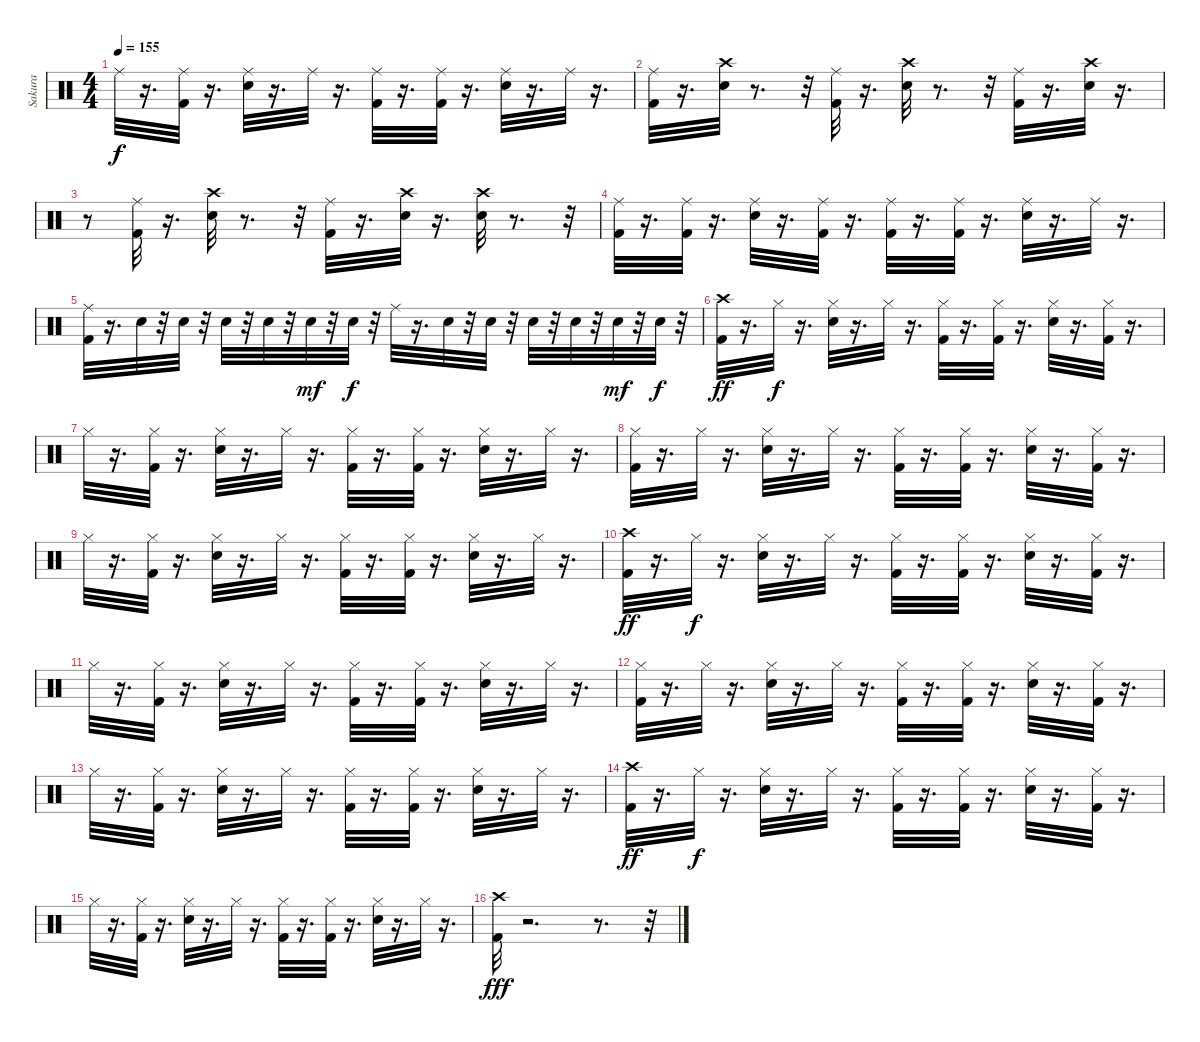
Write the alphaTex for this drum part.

\track ("Sakura" "Sakura") {instrument percussion}
\staff {score}
\articulation defaults
\ts (4 4)
\tempo 155
\clef neutral
\ks c "Ride (middle)".32{dy f}
r.16{d} ("Ride (middle)" "Kick (hit) 2").32 r.16{d} ("Ride (middle)" "Snare (hit) 2").32 r.16{d} "Ride (middle)".32 r.16{d} ("Ride (middle)" "Kick (hit) 2").32 r.16{d} ("Ride (middle)" "Kick (hit) 2").32 r.16{d} ("Ride (middle)" "Snare (hit) 2").32 r.16{d} "Ride (middle)".32 r.16{d} |
("Ride (middle)" "Kick (hit) 2").32 r.16{d} ("Crash high (hit)" "Snare (hit) 2").32 r.8{d} r.32 ("Ride (middle)" "Kick (hit) 2").32 r.16{d} ("Crash high (hit)" "Snare (hit) 2").32 r.8{d} r.32 ("Ride (middle)" "Kick (hit) 2").32 r.16{d} ("Crash high (hit)" "Snare (hit) 2").32 r.16{d} |
r.8 ("Ride (middle)" "Kick (hit) 2").32 r.16{d} ("Crash high (hit)" "Snare (hit) 2").32 r.8{d} r.32 ("Ride (middle)" "Kick (hit) 2").32 r.16{d} ("Crash high (hit)" "Snare (hit) 2").32 r.16{d} ("Crash high (hit)" "Snare (hit) 2").32 r.8{d} r.32 |
("Ride (middle)" "Kick (hit) 2").32 r.16{d} ("Ride (middle)" "Kick (hit) 2").32 r.16{d} ("Ride (middle)" "Snare (hit) 2").32 r.16{d} ("Ride (middle)" "Kick (hit) 2").32 r.16{d} ("Ride (middle)" "Kick (hit) 2").32 r.16{d} ("Ride (middle)" "Kick (hit) 2").32 r.16{d} ("Ride (middle)" "Snare (hit) 2").32 r.16{d} "Ride (middle)".32 r.16{d} |
("Ride (middle)" "Kick (hit) 2").32 r.16{d} "Snare (hit) 2".32 r.32 "Snare (hit) 2".32 r.32 "Snare (hit) 2".32 r.32 "Snare (hit) 2".32 r.32 "Snare (hit) 2".32{dy mf} r.32 "Snare (hit) 2".32{dy f} r.32 "Ride (middle)".32 r.16{d} "Snare (hit) 2".32 r.32 "Snare (hit) 2".32 r.32 "Snare (hit) 2".32 r.32 "Snare (hit) 2".32 r.32 "Snare (hit) 2".32{dy mf} r.32 "Snare (hit) 2".32{dy f} r.32 |
("Crash high (hit)" "Kick (hit) 2").32{dy ff} r.16{d} "Hi-Hat (closed)".32{dy f} r.16{d} ("Hi-Hat (closed)" "Snare (hit) 2").32 r.16{d} "Hi-Hat (closed)".32 r.16{d} ("Hi-Hat (closed)" "Kick (hit) 2").32 r.16{d} ("Hi-Hat (closed)" "Kick (hit) 2").32 r.16{d} ("Hi-Hat (closed)" "Snare (hit) 2").32 r.16{d} ("Hi-Hat (closed)" "Kick (hit) 2").32 r.16{d} |
"Hi-Hat (closed)".32 r.16{d} ("Hi-Hat (closed)" "Kick (hit) 2").32 r.16{d} ("Hi-Hat (closed)" "Snare (hit) 2").32 r.16{d} "Hi-Hat (closed)".32 r.16{d} ("Hi-Hat (closed)" "Kick (hit) 2").32 r.16{d} ("Hi-Hat (closed)" "Kick (hit) 2").32 r.16{d} ("Hi-Hat (closed)" "Snare (hit) 2").32 r.16{d} "Hi-Hat (closed)".32 r.16{d} |
("Hi-Hat (closed)" "Kick (hit) 2").32 r.16{d} "Hi-Hat (closed)".32 r.16{d} ("Hi-Hat (closed)" "Snare (hit) 2").32 r.16{d} "Hi-Hat (closed)".32 r.16{d} ("Hi-Hat (closed)" "Kick (hit) 2").32 r.16{d} ("Hi-Hat (closed)" "Kick (hit) 2").32 r.16{d} ("Hi-Hat (closed)" "Snare (hit) 2").32 r.16{d} ("Hi-Hat (closed)" "Kick (hit) 2").32 r.16{d} |
"Hi-Hat (closed)".32 r.16{d} ("Hi-Hat (closed)" "Kick (hit) 2").32 r.16{d} ("Hi-Hat (closed)" "Snare (hit) 2").32 r.16{d} "Hi-Hat (closed)".32 r.16{d} ("Hi-Hat (closed)" "Kick (hit) 2").32 r.16{d} ("Hi-Hat (closed)" "Kick (hit) 2").32 r.16{d} ("Hi-Hat (closed)" "Snare (hit) 2").32 r.16{d} "Hi-Hat (closed)".32 r.16{d} |
("Crash high (hit)" "Kick (hit) 2").32{dy ff} r.16{d} "Hi-Hat (closed)".32{dy f} r.16{d} ("Hi-Hat (closed)" "Snare (hit) 2").32 r.16{d} "Hi-Hat (closed)".32 r.16{d} ("Hi-Hat (closed)" "Kick (hit) 2").32 r.16{d} ("Hi-Hat (closed)" "Kick (hit) 2").32 r.16{d} ("Hi-Hat (closed)" "Snare (hit) 2").32 r.16{d} ("Hi-Hat (closed)" "Kick (hit) 2").32 r.16{d} |
"Hi-Hat (closed)".32 r.16{d} ("Hi-Hat (closed)" "Kick (hit) 2").32 r.16{d} ("Hi-Hat (closed)" "Snare (hit) 2").32 r.16{d} "Hi-Hat (closed)".32 r.16{d} ("Hi-Hat (closed)" "Kick (hit) 2").32 r.16{d} ("Hi-Hat (closed)" "Kick (hit) 2").32 r.16{d} ("Hi-Hat (closed)" "Snare (hit) 2").32 r.16{d} "Hi-Hat (closed)".32 r.16{d} |
("Hi-Hat (closed)" "Kick (hit) 2").32 r.16{d} "Hi-Hat (closed)".32 r.16{d} ("Hi-Hat (closed)" "Snare (hit) 2").32 r.16{d} "Hi-Hat (closed)".32 r.16{d} ("Hi-Hat (closed)" "Kick (hit) 2").32 r.16{d} ("Hi-Hat (closed)" "Kick (hit) 2").32 r.16{d} ("Hi-Hat (closed)" "Snare (hit) 2").32 r.16{d} ("Hi-Hat (closed)" "Kick (hit) 2").32 r.16{d} |
"Hi-Hat (closed)".32 r.16{d} ("Hi-Hat (closed)" "Kick (hit) 2").32 r.16{d} ("Hi-Hat (closed)" "Snare (hit) 2").32 r.16{d} "Hi-Hat (closed)".32 r.16{d} ("Hi-Hat (closed)" "Kick (hit) 2").32 r.16{d} ("Hi-Hat (closed)" "Kick (hit) 2").32 r.16{d} ("Hi-Hat (closed)" "Snare (hit) 2").32 r.16{d} "Hi-Hat (closed)".32 r.16{d} |
("Crash high (hit)" "Kick (hit) 2").32{dy ff} r.16{d} "Hi-Hat (closed)".32{dy f} r.16{d} ("Hi-Hat (closed)" "Snare (hit) 2").32 r.16{d} "Hi-Hat (closed)".32 r.16{d} ("Hi-Hat (closed)" "Kick (hit) 2").32 r.16{d} ("Hi-Hat (closed)" "Kick (hit) 2").32 r.16{d} ("Hi-Hat (closed)" "Snare (hit) 2").32 r.16{d} ("Hi-Hat (closed)" "Kick (hit) 2").32 r.16{d} |
"Hi-Hat (closed)".32 r.16{d} ("Hi-Hat (closed)" "Kick (hit) 2").32 r.16{d} ("Hi-Hat (closed)" "Snare (hit) 2").32 r.16{d} "Hi-Hat (closed)".32 r.16{d} ("Hi-Hat (closed)" "Kick (hit) 2").32 r.16{d} ("Hi-Hat (closed)" "Kick (hit) 2").32 r.16{d} ("Hi-Hat (closed)" "Snare (hit) 2").32 r.16{d} "Hi-Hat (closed)".32 r.16{d} |
("Crash high (hit)" "Kick (hit) 2").32{dy fff} r.2{d} r.8{d} r.32
